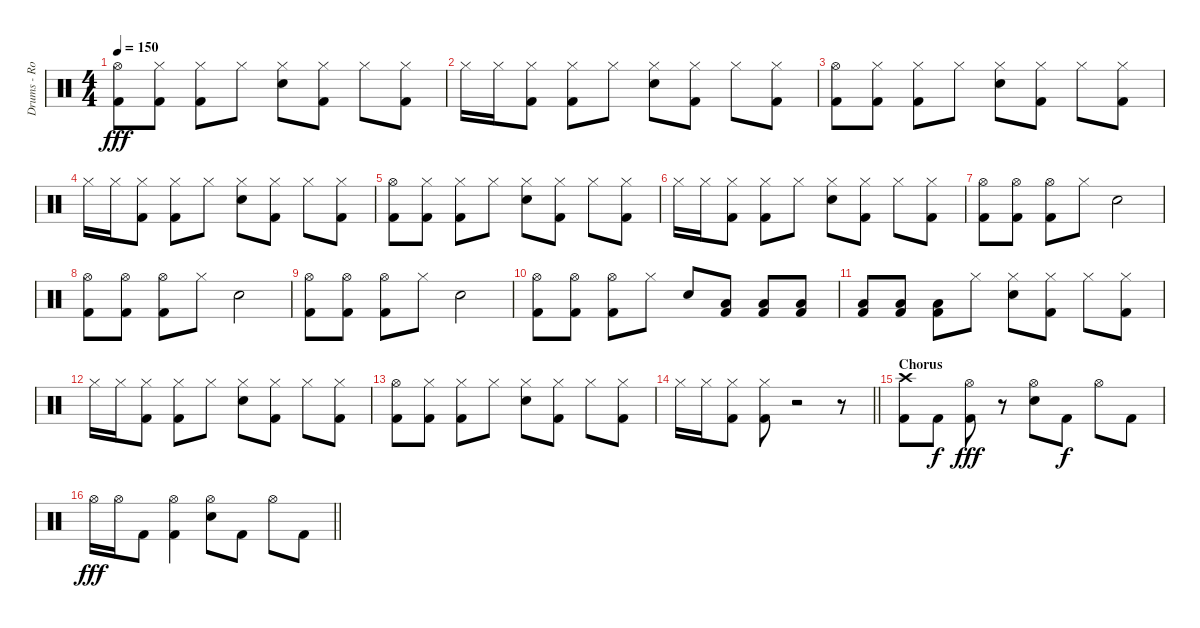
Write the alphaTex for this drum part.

\track ("Drums - Rob Bourdon" "Drums - Ro") {instrument percussion}
\staff {score}
\articulation defaults
\ts (4 4)
\tempo 150
\clef neutral
\ks c
("Hi-Hat (open)" "Kick (hit) 2").8{dy fff} ("Hi-Hat (closed)" "Kick (hit) 2").8 ("Hi-Hat (closed)" "Kick (hit) 2").8 "Hi-Hat (closed)".8 ("Hi-Hat (closed)" "Snare (hit) 2").8 ("Hi-Hat (closed)" "Kick (hit) 2").8 "Hi-Hat (closed)".8 ("Hi-Hat (closed)" "Kick (hit) 2").8 |
"Hi-Hat (closed)".16 "Hi-Hat (closed)".16 ("Hi-Hat (closed)" "Kick (hit) 2").8 ("Hi-Hat (closed)" "Kick (hit) 2").8 "Hi-Hat (closed)".8 ("Hi-Hat (closed)" "Snare (hit) 2").8 ("Hi-Hat (closed)" "Kick (hit) 2").8 "Hi-Hat (closed)".8 ("Hi-Hat (closed)" "Kick (hit) 2").8 |
("Hi-Hat (open)" "Kick (hit) 2").8 ("Hi-Hat (closed)" "Kick (hit) 2").8 ("Hi-Hat (closed)" "Kick (hit) 2").8 "Hi-Hat (closed)".8 ("Hi-Hat (closed)" "Snare (hit) 2").8 ("Hi-Hat (closed)" "Kick (hit) 2").8 "Hi-Hat (closed)".8 ("Hi-Hat (closed)" "Kick (hit) 2").8 |
"Hi-Hat (closed)".16 "Hi-Hat (closed)".16 ("Hi-Hat (closed)" "Kick (hit) 2").8 ("Hi-Hat (closed)" "Kick (hit) 2").8 "Hi-Hat (closed)".8 ("Hi-Hat (closed)" "Snare (hit) 2").8 ("Hi-Hat (closed)" "Kick (hit) 2").8 "Hi-Hat (closed)".8 ("Hi-Hat (closed)" "Kick (hit) 2").8 |
("Hi-Hat (open)" "Kick (hit) 2").8 ("Hi-Hat (closed)" "Kick (hit) 2").8 ("Hi-Hat (closed)" "Kick (hit) 2").8 "Hi-Hat (closed)".8 ("Hi-Hat (closed)" "Snare (hit) 2").8 ("Hi-Hat (closed)" "Kick (hit) 2").8 "Hi-Hat (closed)".8 ("Hi-Hat (closed)" "Kick (hit) 2").8 |
"Hi-Hat (closed)".16 "Hi-Hat (closed)".16 ("Hi-Hat (closed)" "Kick (hit) 2").8 ("Hi-Hat (closed)" "Kick (hit) 2").8 "Hi-Hat (closed)".8 ("Hi-Hat (closed)" "Snare (hit) 2").8 ("Hi-Hat (closed)" "Kick (hit) 2").8 "Hi-Hat (closed)".8 ("Hi-Hat (closed)" "Kick (hit) 2").8 |
("Hi-Hat (open)" "Kick (hit) 2").8 ("Hi-Hat (open)" "Kick (hit) 2").8 ("Hi-Hat (open)" "Kick (hit) 2").8 "Hi-Hat (closed)".8 "Electric Snare (hit)".2 |
("Hi-Hat (open)" "Kick (hit) 2").8 ("Hi-Hat (open)" "Kick (hit) 2").8 ("Hi-Hat (open)" "Kick (hit) 2").8 "Hi-Hat (closed)".8 "Electric Snare (hit)".2 |
("Hi-Hat (open)" "Kick (hit) 2").8 ("Hi-Hat (open)" "Kick (hit) 2").8 ("Hi-Hat (open)" "Kick (hit) 2").8 "Hi-Hat (closed)".8 "Electric Snare (hit)".2 |
("Hi-Hat (open)" "Kick (hit) 2").8 ("Hi-Hat (open)" "Kick (hit) 2").8 ("Hi-Hat (open)" "Kick (hit) 2").8 "Hi-Hat (closed)".8 "Electric Snare (hit)".8 ("Low Tom (hit)" "Kick (hit) 2").8 ("Low Tom (hit)" "Kick (hit) 2").8 ("Low Tom (hit)" "Kick (hit) 2").8 |
("Low Tom (hit)" "Kick (hit) 2").8 ("Low Tom (hit)" "Kick (hit) 2").8 ("Low Tom (hit)" "Kick (hit) 2").8 "Hi-Hat (closed)".8 ("Hi-Hat (closed)" "Snare (hit) 2").8 ("Hi-Hat (closed)" "Kick (hit) 2").8 "Hi-Hat (closed)".8 ("Hi-Hat (closed)" "Kick (hit) 2").8 |
"Hi-Hat (closed)".16 "Hi-Hat (closed)".16 ("Hi-Hat (closed)" "Kick (hit) 2").8 ("Hi-Hat (closed)" "Kick (hit) 2").8 "Hi-Hat (closed)".8 ("Hi-Hat (closed)" "Snare (hit) 2").8 ("Hi-Hat (closed)" "Kick (hit) 2").8 "Hi-Hat (closed)".8 ("Hi-Hat (closed)" "Kick (hit) 2").8 |
("Hi-Hat (open)" "Kick (hit) 2").8 ("Hi-Hat (closed)" "Kick (hit) 2").8 ("Hi-Hat (closed)" "Kick (hit) 2").8 "Hi-Hat (closed)".8 ("Hi-Hat (closed)" "Snare (hit) 2").8 ("Hi-Hat (closed)" "Kick (hit) 2").8 "Hi-Hat (closed)".8 ("Hi-Hat (closed)" "Kick (hit) 2").8 |
\barLineRight lightlight "Hi-Hat (closed)".16 "Hi-Hat (closed)".16
("Hi-Hat (closed)" "Kick (hit) 2").8 ("Hi-Hat (closed)" "Kick (hit) 2").8 r.2 r.8 |
\section ("" "Chorus")
("Crash high (hit)" "Kick (hit) 2").8 "Kick (hit) 2".8{dy f} ("Hi-Hat (open)" "Kick (hit) 2").8{dy fff} r.8 ("Hi-Hat (open)" "Snare (hit) 2").8 "Kick (hit) 2".8{dy f} "Hi-Hat (open)".8 "Kick (hit) 2".8 |
\barLineRight lightlight "Hi-Hat (open)".16{dy fff} "Hi-Hat (open)".16 "Kick (hit) 2".8
("Hi-Hat (open)" "Kick (hit) 2").4 ("Hi-Hat (open)" "Snare (hit) 2").8 "Kick (hit) 2".8 "Hi-Hat (open)".8 "Kick (hit) 2".8
